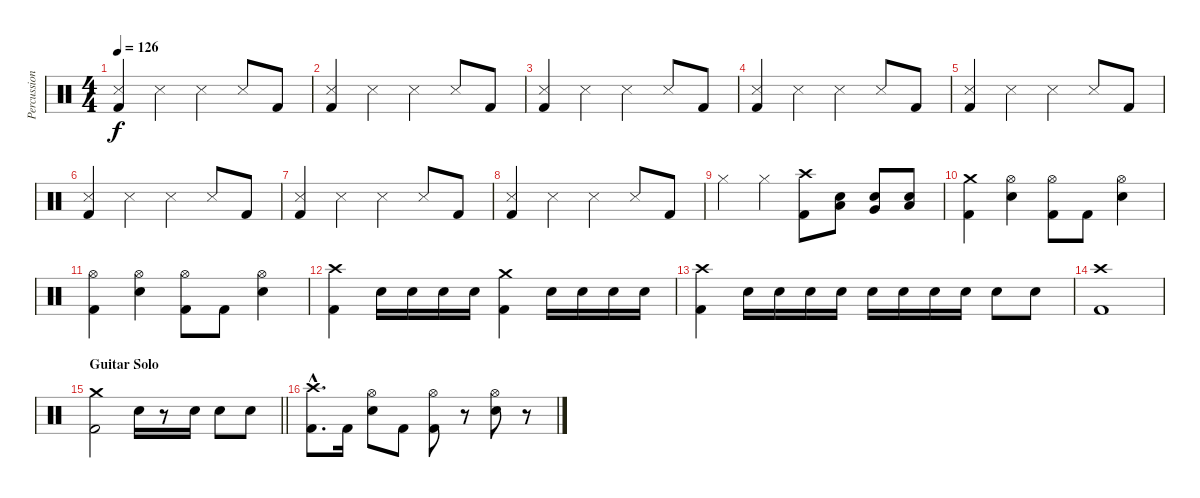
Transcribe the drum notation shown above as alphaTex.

\track ("Percussion" "Percussion") {instrument percussion}
\staff {score}
\articulation defaults
\ts (4 4)
\tempo 126
\clef neutral
\ks c
("Snare (side stick) 3" "Kick (hit) 2").4{dy f} "Snare (side stick) 3".4 "Snare (side stick) 3".4 "Snare (side stick) 3".8 "Kick (hit) 2".8 |
("Snare (side stick) 3" "Kick (hit) 2").4 "Snare (side stick) 3".4 "Snare (side stick) 3".4 "Snare (side stick) 3".8 "Kick (hit) 2".8 |
("Snare (side stick) 3" "Kick (hit) 2").4 "Snare (side stick) 3".4 "Snare (side stick) 3".4 "Snare (side stick) 3".8 "Kick (hit) 2".8 |
("Snare (side stick) 3" "Kick (hit) 2").4 "Snare (side stick) 3".4 "Snare (side stick) 3".4 "Snare (side stick) 3".8 "Kick (hit) 2".8 |
("Snare (side stick) 3" "Kick (hit) 2").4 "Snare (side stick) 3".4 "Snare (side stick) 3".4 "Snare (side stick) 3".8 "Kick (hit) 2".8 |
("Snare (side stick) 3" "Kick (hit) 2").4 "Snare (side stick) 3".4 "Snare (side stick) 3".4 "Snare (side stick) 3".8 "Kick (hit) 2".8 |
("Snare (side stick) 3" "Kick (hit) 2").4 "Snare (side stick) 3".4 "Snare (side stick) 3".4 "Snare (side stick) 3".8 "Kick (hit) 2".8 |
("Snare (side stick) 3" "Kick (hit) 2").4 "Snare (side stick) 3".4 "Snare (side stick) 3".4 "Snare (side stick) 3".8 "Kick (hit) 2".8 |
"Hi-Hat (closed)".4 "Hi-Hat (closed)".4 ("Crash high (hit)" "Kick (hit) 2").8 ("Snare (hit) 2" "Low Tom (hit)").8 ("Snare (hit) 2" "Very Low Tom (hit)").8 ("Snare (hit) 2" "Low Floor Tom (hit)").8 |
("Crash medium (hit)" "Kick (hit) 2").4 ("Hi-Hat (open)" "Snare (hit) 2").4 ("Hi-Hat (open)" "Kick (hit) 2").8 "Kick (hit) 2".8 ("Hi-Hat (open)" "Snare (hit) 2").4 |
("Hi-Hat (open)" "Kick (hit) 2").4 ("Hi-Hat (open)" "Snare (hit) 2").4 ("Hi-Hat (open)" "Kick (hit) 2").8 "Kick (hit) 2".8 ("Hi-Hat (open)" "Snare (hit) 2").4 |
("Crash high (hit)" "Kick (hit) 2").4 "Snare (hit) 2".16 "Snare (hit) 2".16 "Snare (hit) 2".16 "Snare (hit) 2".16 ("Crash medium (hit)" "Kick (hit) 2").4 "Snare (hit) 2".16 "Snare (hit) 2".16 "Snare (hit) 2".16 "Snare (hit) 2".16 |
("Crash high (hit)" "Kick (hit) 2").4 "Snare (hit) 2".16 "Snare (hit) 2".16 "Snare (hit) 2".16 "Snare (hit) 2".16 "Snare (hit) 2".16 "Snare (hit) 2".16 "Snare (hit) 2".16 "Snare (hit) 2".16 "Snare (hit) 2".8 "Snare (hit) 2".8 |
("Crash high (hit)" "Kick (hit) 2").1 |
\section ("" "Guitar Solo")
\barLineRight lightlight
("Crash medium (hit)" "Kick (hit) 2").2 "Snare (hit) 2".16 r.8 "Snare (hit) 2".16 "Snare (hit) 2".8 "Snare (hit) 2".8 |
("Crash high (hit)"{hac} "Kick (hit) 2"{hac}).8{d} "Kick (hit) 2".16 ("Hi-Hat (open)" "Snare (hit) 2").8 "Kick (hit) 2".8 ("Hi-Hat (open)" "Kick (hit) 2").8 r.8 ("Hi-Hat (open)" "Snare (hit) 2").8 r.8
